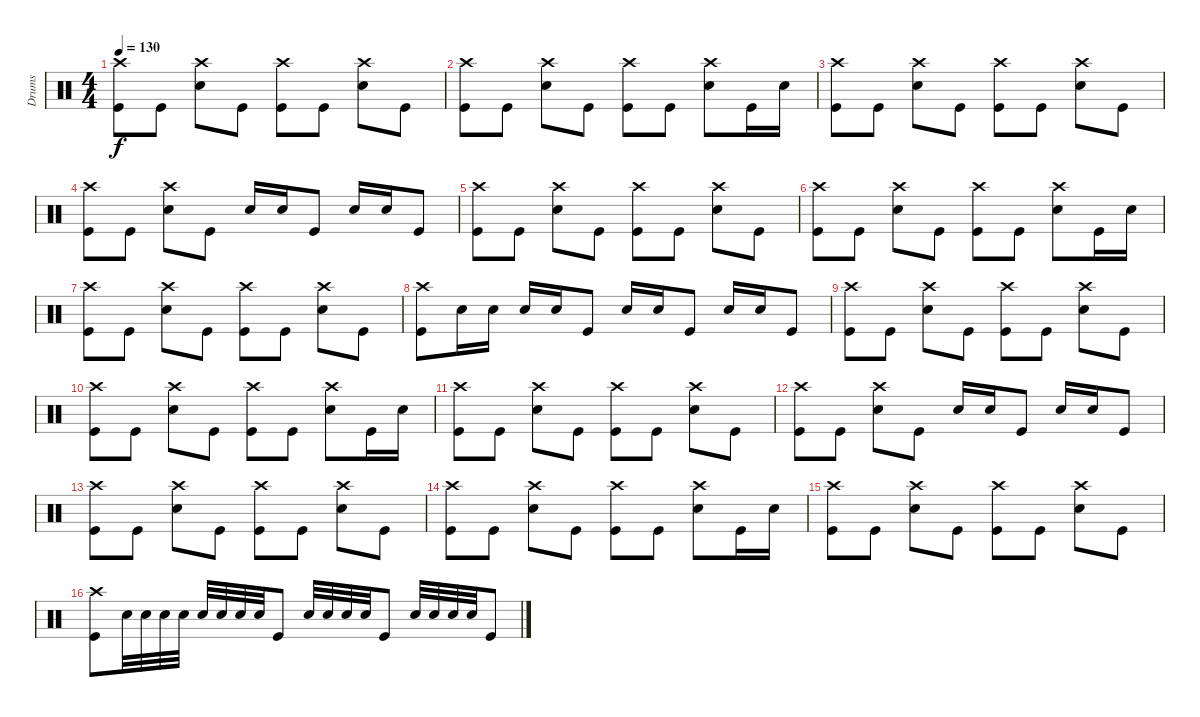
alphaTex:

\track ("Drums" "Drums") {instrument percussion}
\staff {score}
\articulation defaults
\ts (4 4)
\tempo 130
\clef neutral
\ks c
("Crash high (hit)" "Kick (hit)").8{dy f} "Kick (hit)".8 ("Crash high (hit)" "Snare (hit) 2").8 "Kick (hit)".8 ("Crash high (hit)" "Kick (hit)").8 "Kick (hit)".8 ("Crash high (hit)" "Snare (hit) 2").8 "Kick (hit)".8 |
("Crash high (hit)" "Kick (hit)").8 "Kick (hit)".8 ("Crash high (hit)" "Snare (hit) 2").8 "Kick (hit)".8 ("Crash high (hit)" "Kick (hit)").8 "Kick (hit)".8 ("Crash high (hit)" "Snare (hit) 2").8 "Kick (hit)".16 "Snare (hit) 2".16 |
("Crash high (hit)" "Kick (hit)").8 "Kick (hit)".8 ("Crash high (hit)" "Snare (hit) 2").8 "Kick (hit)".8 ("Crash high (hit)" "Kick (hit)").8 "Kick (hit)".8 ("Crash high (hit)" "Snare (hit) 2").8 "Kick (hit)".8 |
("Crash high (hit)" "Kick (hit)").8 "Kick (hit)".8 ("Crash high (hit)" "Snare (hit) 2").8 "Kick (hit)".8 "Snare (hit) 2".16 "Snare (hit) 2".16 "Kick (hit)".8 "Snare (hit) 2".16 "Snare (hit) 2".16 "Kick (hit)".8 |
("Crash high (hit)" "Kick (hit)").8 "Kick (hit)".8 ("Crash high (hit)" "Snare (hit) 2").8 "Kick (hit)".8 ("Crash high (hit)" "Kick (hit)").8 "Kick (hit)".8 ("Crash high (hit)" "Snare (hit) 2").8 "Kick (hit)".8 |
("Crash high (hit)" "Kick (hit)").8 "Kick (hit)".8 ("Crash high (hit)" "Snare (hit) 2").8 "Kick (hit)".8 ("Crash high (hit)" "Kick (hit)").8 "Kick (hit)".8 ("Crash high (hit)" "Snare (hit) 2").8 "Kick (hit)".16 "Snare (hit) 2".16 |
("Crash high (hit)" "Kick (hit)").8 "Kick (hit)".8 ("Crash high (hit)" "Snare (hit) 2").8 "Kick (hit)".8 ("Crash high (hit)" "Kick (hit)").8 "Kick (hit)".8 ("Crash high (hit)" "Snare (hit) 2").8 "Kick (hit)".8 |
("Crash high (hit)" "Kick (hit)").8 "Snare (hit) 2".16 "Snare (hit) 2".16 "Snare (hit) 2".16 "Snare (hit) 2".16 "Kick (hit)".8 "Snare (hit) 2".16 "Snare (hit) 2".16 "Kick (hit)".8 "Snare (hit) 2".16 "Snare (hit) 2".16 "Kick (hit)".8 |
("Crash high (hit)" "Kick (hit)").8 "Kick (hit)".8 ("Crash high (hit)" "Snare (hit) 2").8 "Kick (hit)".8 ("Crash high (hit)" "Kick (hit)").8 "Kick (hit)".8 ("Crash high (hit)" "Snare (hit) 2").8 "Kick (hit)".8 |
("Crash high (hit)" "Kick (hit)").8 "Kick (hit)".8 ("Crash high (hit)" "Snare (hit) 2").8 "Kick (hit)".8 ("Crash high (hit)" "Kick (hit)").8 "Kick (hit)".8 ("Crash high (hit)" "Snare (hit) 2").8 "Kick (hit)".16 "Snare (hit) 2".16 |
("Crash high (hit)" "Kick (hit)").8 "Kick (hit)".8 ("Crash high (hit)" "Snare (hit) 2").8 "Kick (hit)".8 ("Crash high (hit)" "Kick (hit)").8 "Kick (hit)".8 ("Crash high (hit)" "Snare (hit) 2").8 "Kick (hit)".8 |
("Crash high (hit)" "Kick (hit)").8 "Kick (hit)".8 ("Crash high (hit)" "Snare (hit) 2").8 "Kick (hit)".8 "Snare (hit) 2".16 "Snare (hit) 2".16 "Kick (hit)".8 "Snare (hit) 2".16 "Snare (hit) 2".16 "Kick (hit)".8 |
("Crash high (hit)" "Kick (hit)").8 "Kick (hit)".8 ("Crash high (hit)" "Snare (hit) 2").8 "Kick (hit)".8 ("Crash high (hit)" "Kick (hit)").8 "Kick (hit)".8 ("Crash high (hit)" "Snare (hit) 2").8 "Kick (hit)".8 |
("Crash high (hit)" "Kick (hit)").8 "Kick (hit)".8 ("Crash high (hit)" "Snare (hit) 2").8 "Kick (hit)".8 ("Crash high (hit)" "Kick (hit)").8 "Kick (hit)".8 ("Crash high (hit)" "Snare (hit) 2").8 "Kick (hit)".16 "Snare (hit) 2".16 |
("Crash high (hit)" "Kick (hit)").8 "Kick (hit)".8 ("Crash high (hit)" "Snare (hit) 2").8 "Kick (hit)".8 ("Crash high (hit)" "Kick (hit)").8 "Kick (hit)".8 ("Crash high (hit)" "Snare (hit) 2").8 "Kick (hit)".8 |
("Crash high (hit)" "Kick (hit)").8 "Snare (hit) 2".32 "Snare (hit) 2".32 "Snare (hit) 2".32 "Snare (hit) 2".32 "Snare (hit) 2".32 "Snare (hit) 2".32 "Snare (hit) 2".32 "Snare (hit) 2".32 "Kick (hit)".8 "Snare (hit) 2".32 "Snare (hit) 2".32 "Snare (hit) 2".32 "Snare (hit) 2".32 "Kick (hit)".8 "Snare (hit) 2".32 "Snare (hit) 2".32 "Snare (hit) 2".32 "Snare (hit) 2".32 "Kick (hit)".8
